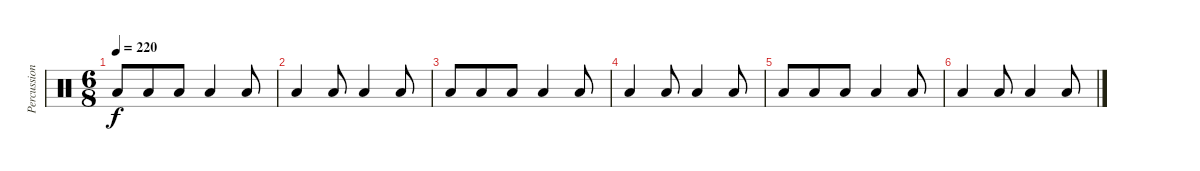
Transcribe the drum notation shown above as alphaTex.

\track ("Percussion" "Percussion") {instrument percussion}
\staff {score}
\articulation defaults
\ts (6 8)
\tempo 220
\clef neutral
\ks c "Low Floor Tom (hit)".8{dy f} "Low Floor Tom (hit)".8 "Low Floor Tom (hit)".8 "Low Tom (hit)".4 "Low Tom (hit)".8
|
"Low Floor Tom (hit)".4 "Low Floor Tom (hit)".8 "Low Tom (hit)".4 "Low Tom (hit)".8 |
"Low Floor Tom (hit)".8{volume 1} "Low Floor Tom (hit)".8 "Low Floor Tom (hit)".8 "Low Tom (hit)".4 "Low Tom (hit)".8 |
"Low Floor Tom (hit)".4{volume 0} "Low Floor Tom (hit)".8 "Low Tom (hit)".4 "Low Tom (hit)".8 |
"Low Floor Tom (hit)".8 "Low Floor Tom (hit)".8 "Low Floor Tom (hit)".8 "Low Tom (hit)".4 "Low Tom (hit)".8 |
"Low Floor Tom (hit)".4 "Low Floor Tom (hit)".8 "Low Tom (hit)".4 "Low Tom (hit)".8
